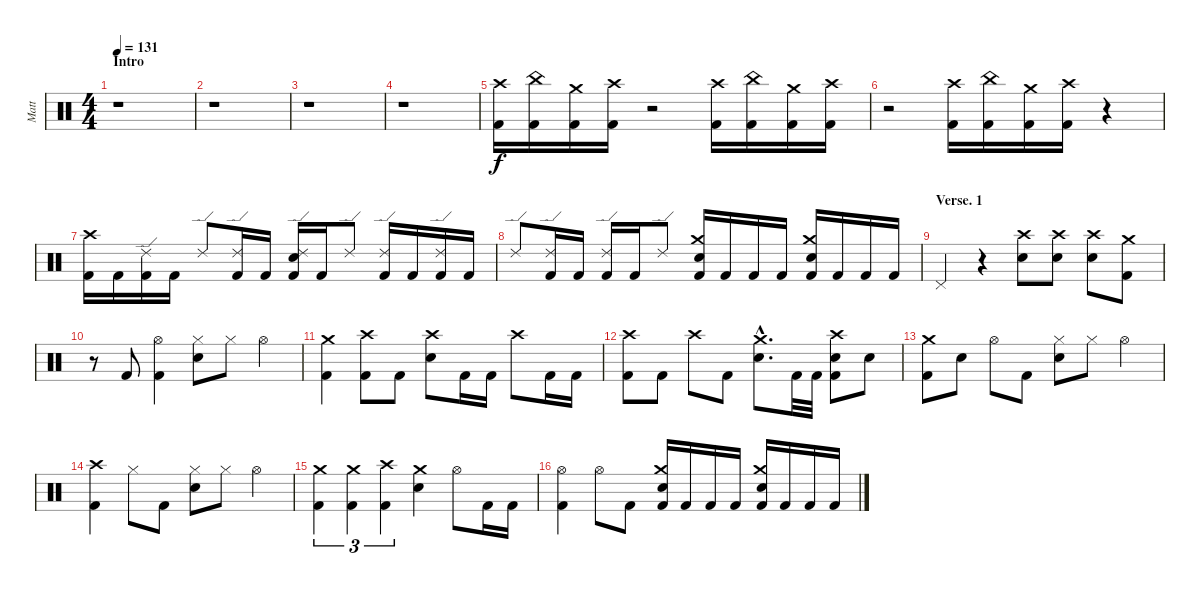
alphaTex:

\track ("Matt" "Matt") {instrument percussion}
\staff {score}
\articulation defaults
\ts (4 4)
\section ("" "Intro")
\tempo 131
\clef neutral
\ks c
r.1{dy f} |
r.1 |
r.1 |
r.1 |
("Crash high (hit)" "Kick (hit) 2").16 ("China (hit)" "Kick (hit) 2").16 ("Crash medium (hit)" "Kick (hit) 2").16 ("Crash high (hit)" "Kick (hit) 2").16 r.2 ("Crash high (hit)" "Kick (hit) 2").16 ("China (hit)" "Kick (hit) 2").16 ("Crash medium (hit)" "Kick (hit) 2").16 ("Crash high (hit)" "Kick (hit) 2").16 |
r.2 ("Crash high (hit)" "Kick (hit) 2").16 ("China (hit)" "Kick (hit) 2").16 ("Crash medium (hit)" "Kick (hit) 2").16 ("Crash high (hit)" "Kick (hit) 2").16 r.4 |
("Crash high (hit)" "Kick (hit) 2").16 "Kick (hit) 2".16 ("Ride (edge) 2" "Kick (hit) 2").16 "Kick (hit) 2".16 "Ride (edge) 2".8 ("Ride (edge) 2" "Kick (hit) 2").16 "Kick (hit) 2".16 ("Ride (edge) 2" "Electric Snare (hit)" "Kick (hit) 2").16 "Kick (hit) 2".16 "Ride (edge) 2".8 ("Ride (edge) 2" "Kick (hit) 2").16 "Kick (hit) 2".16 ("Ride (edge) 2" "Kick (hit) 2").16 "Kick (hit) 2".16 |
"Ride (edge) 2".8 ("Ride (edge) 2" "Kick (hit) 2").16 "Kick (hit) 2".16 ("Ride (edge) 2" "Kick (hit) 2").16 "Kick (hit) 2".16 "Ride (edge) 2".8 ("Crash medium (hit)" "Electric Snare (hit)" "Kick (hit) 2").16 "Kick (hit) 2".16 "Kick (hit) 2".16 "Kick (hit) 2".16 ("Crash medium (hit)" "Electric Snare (hit)" "Kick (hit) 2").16 "Kick (hit) 2".16 "Kick (hit) 2".16 "Kick (hit) 2".16 |
\section ("" "Verse. 1")
"Pedal Hi-Hat (hit)".4 r.4 ("Crash high (hit)" "Electric Snare (hit)").8 ("Crash high (hit)" "Electric Snare (hit)").8 ("Crash high (hit)" "Electric Snare (hit)").8 ("Crash medium (hit)" "Kick (hit) 2").8 |
r.8 "Kick (hit) 2".8 ("Hi-Hat (open)" "Kick (hit) 2").4 ("Hi-Hat (closed)" "Electric Snare (hit)").8 "Hi-Hat (closed)".8 "Hi-Hat (open)".4 |
("Crash medium (hit)" "Kick (hit) 2").4 ("Crash high (hit)" "Kick (hit) 2").8 "Kick (hit) 2".8 ("Crash high (hit)" "Electric Snare (hit)").8 "Kick (hit) 2".16 "Kick (hit) 2".16 "Crash high (hit)".8 "Kick (hit) 2".16 "Kick (hit) 2".16 |
("Crash high (hit)" "Kick (hit) 2").8 "Kick (hit) 2".8 "Crash high (hit)".8 "Kick (hit) 2".8 ("Crash medium (hit)"{hac} "Electric Snare (hit)"{hac}).8{d} "Kick (hit) 2".32 "Kick (hit) 2".32 ("Crash high (hit)" "Electric Snare (hit)" "Kick (hit) 2").8 "Electric Snare (hit)".8 |
("Crash medium (hit)" "Kick (hit) 2").8 "Electric Snare (hit)".8 "Hi-Hat (open)".8 "Kick (hit) 2".8 ("Hi-Hat (closed)" "Electric Snare (hit)").8 "Hi-Hat (closed)".8 "Hi-Hat (open)".4 |
("Crash high (hit)" "Kick (hit) 2").4 "Hi-Hat (closed)".8 "Kick (hit) 2".8 ("Hi-Hat (closed)" "Electric Snare (hit)").8 "Hi-Hat (closed)".8 "Hi-Hat (open)".4 |
("Crash medium (hit)" "Kick (hit) 2").4{tu (3 2)} ("Crash medium (hit)" "Kick (hit) 2").4{tu (3 2)} ("Crash high (hit)" "Kick (hit) 2").4{tu (3 2)} ("Crash medium (hit)" "Electric Snare (hit)").4 "Hi-Hat (open)".8 "Kick (hit) 2".16 "Kick (hit) 2".16 |
("Hi-Hat (open)" "Kick (hit) 2").4 "Hi-Hat (open)".8 "Kick (hit) 2".8 ("Crash medium (hit)" "Electric Snare (hit)" "Kick (hit) 2").16 "Kick (hit) 2".16 "Kick (hit) 2".16 "Kick (hit) 2".16 ("Crash medium (hit)" "Electric Snare (hit)" "Kick (hit) 2").16 "Kick (hit) 2".16 "Kick (hit) 2".16 "Kick (hit) 2".16
